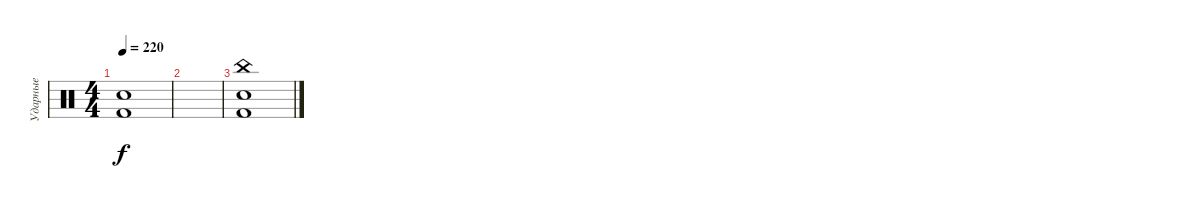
\track ("Ударные" "Ударные") {instrument percussion}
\staff {score}
\articulation defaults
\ts (4 4)
\tempo 220
\clef neutral
\ks c
("Kick (hit) 2" "Electric Snare (hit)").1{dy f} |
|
("Kick (hit) 2" "Electric Snare (hit)" "China (hit)").1
